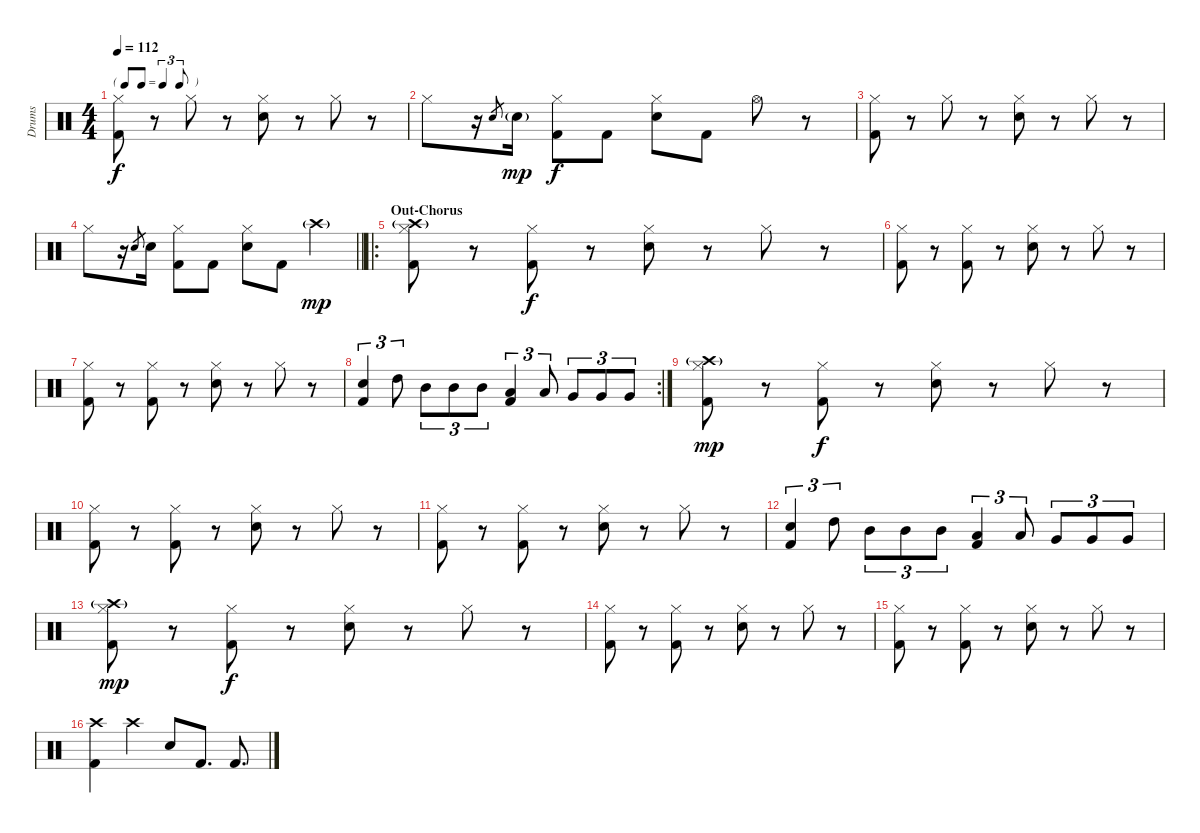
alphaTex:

\track ("Drums" "Drums") {instrument percussion}
\staff {score}
\articulation defaults
\ts (4 4)
\tf triplet8th
\tempo 112
\clef neutral
\ks c
("Hi-Hat (closed)" "Kick (hit) 2").8{dy f} r.8 "Hi-Hat (closed)".8 r.8 ("Hi-Hat (closed)" "Snare (hit) 2").8 r.8 "Hi-Hat (closed)".8 r.8 |
"Hi-Hat (closed)".8 r.16 "Snare (hit) 2".8{gr} "Snare (hit) 2"{g}.16{dy mp} ("Hi-Hat (closed)" "Kick (hit) 2").8{dy f} "Kick (hit) 2".8 ("Hi-Hat (closed)" "Snare (hit) 2").8 "Kick (hit) 2".8 "Hi-Hat (open)".8 r.8 |
("Hi-Hat (closed)" "Kick (hit) 2").8 r.8 "Hi-Hat (closed)".8 r.8 ("Hi-Hat (closed)" "Snare (hit) 2").8 r.8 "Hi-Hat (closed)".8 r.8 |
\barLineRight lightlight "Hi-Hat (closed)".8
r.16 "Snare (hit) 2".8{gr} "Snare (hit) 2".16 ("Hi-Hat (closed)" "Kick (hit) 2").8 "Kick (hit) 2".8 ("Hi-Hat (closed)" "Snare (hit) 2").8 "Kick (hit) 2".8 "Crash high (hit)"{g}.4{dy mp} |
\ro
\section ("" "Out-Chorus")
("Crash high (hit)"{g} "Hi-Hat (closed)" "Kick (hit) 2").8 r.8 ("Hi-Hat (closed)" "Kick (hit) 2").8{dy f} r.8 ("Hi-Hat (closed)" "Snare (hit) 2").8 r.8 "Hi-Hat (closed)".8 r.8 |
("Hi-Hat (closed)" "Kick (hit) 2").8 r.8 ("Hi-Hat (closed)" "Kick (hit) 2").8 r.8 ("Hi-Hat (closed)" "Snare (hit) 2").8 r.8 "Hi-Hat (closed)".8 r.8 |
("Hi-Hat (closed)" "Kick (hit) 2").8 r.8 ("Hi-Hat (closed)" "Kick (hit) 2").8 r.8 ("Hi-Hat (closed)" "Snare (hit) 2").8 r.8 "Hi-Hat (closed)".8 r.8 |
\rc 2
("Snare (hit) 2" "Kick (hit) 2").4{tu (3 2)} "High Tom (hit)".8{tu (3 2)} "Mid Tom (hit)".8{tu (3 2)} "Mid Tom (hit)".8{tu (3 2)} "Mid Tom (hit)".8{tu (3 2)} ("Low Tom (hit)" "Kick (hit) 2").4{tu (3 2)} "Low Tom (hit)".8{tu (3 2)} "Very Low Tom (hit)".8{tu (3 2)} "Very Low Tom (hit)".8{tu (3 2)} "Very Low Tom (hit)".8{tu (3 2)} |
("Crash high (hit)"{g} "Hi-Hat (closed)" "Kick (hit) 2").8{dy mp} r.8 ("Hi-Hat (closed)" "Kick (hit) 2").8{dy f} r.8 ("Hi-Hat (closed)" "Snare (hit) 2").8 r.8 "Hi-Hat (closed)".8 r.8 |
("Hi-Hat (closed)" "Kick (hit) 2").8 r.8 ("Hi-Hat (closed)" "Kick (hit) 2").8 r.8 ("Hi-Hat (closed)" "Snare (hit) 2").8 r.8 "Hi-Hat (closed)".8 r.8 |
("Hi-Hat (closed)" "Kick (hit) 2").8 r.8 ("Hi-Hat (closed)" "Kick (hit) 2").8 r.8 ("Hi-Hat (closed)" "Snare (hit) 2").8 r.8 "Hi-Hat (closed)".8 r.8 |
("Snare (hit) 2" "Kick (hit) 2").4{tu (3 2)} "High Tom (hit)".8{tu (3 2)} "Mid Tom (hit)".8{tu (3 2)} "Mid Tom (hit)".8{tu (3 2)} "Mid Tom (hit)".8{tu (3 2)} ("Low Tom (hit)" "Kick (hit) 2").4{tu (3 2)} "Low Tom (hit)".8{tu (3 2)} "Very Low Tom (hit)".8{tu (3 2)} "Very Low Tom (hit)".8{tu (3 2)} "Very Low Tom (hit)".8{tu (3 2)} |
("Crash high (hit)"{g} "Hi-Hat (closed)" "Kick (hit) 2").8{dy mp} r.8 ("Hi-Hat (closed)" "Kick (hit) 2").8{dy f} r.8 ("Hi-Hat (closed)" "Snare (hit) 2").8 r.8 "Hi-Hat (closed)".8 r.8 |
("Hi-Hat (closed)" "Kick (hit) 2").8 r.8 ("Hi-Hat (closed)" "Kick (hit) 2").8 r.8 ("Hi-Hat (closed)" "Snare (hit) 2").8 r.8 "Hi-Hat (closed)".8 r.8 |
("Hi-Hat (closed)" "Kick (hit) 2").8 r.8 ("Hi-Hat (closed)" "Kick (hit) 2").8 r.8 ("Hi-Hat (closed)" "Snare (hit) 2").8 r.8 "Hi-Hat (closed)".8 r.8 |
("Crash high (hit)" "Kick (hit) 2").4 "Crash high (hit)".4 "Snare (hit) 2".8 "Kick (hit) 2".8{d} "Kick (hit) 2".8{d}
